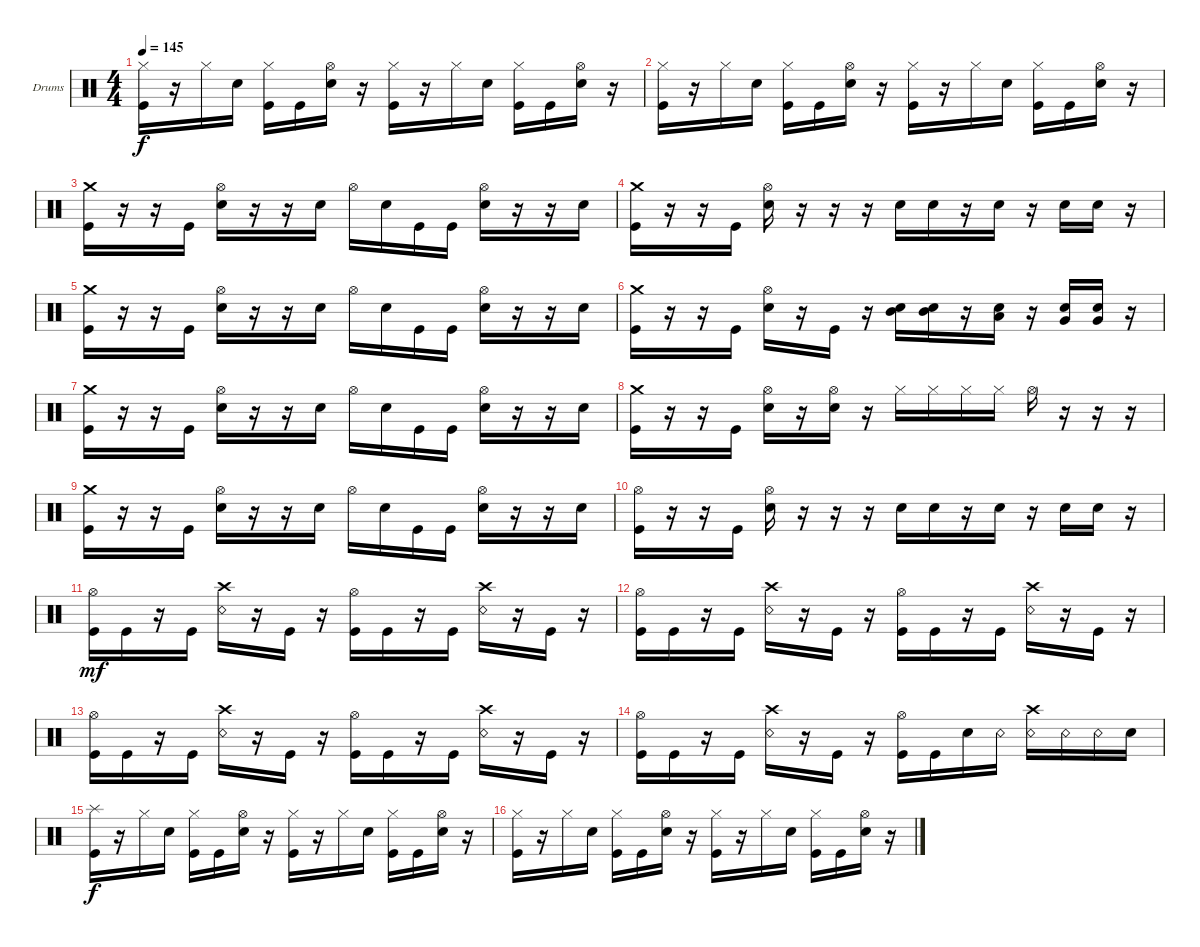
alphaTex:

\defaultSystemsLayout 4
\bracketExtendMode groupsimilarinstruments
\firstSystemTrackNameOrientation horizontal
\otherSystemsTrackNameOrientation horizontal
\track ("Drumkit" "Drums") {instrument percussion}
\staff {score}
\articulation defaults
\ts (4 4)
\tempo 145
\clef neutral
\ks c
("Kick (hit)" "Hi-Hat (closed)").16{dy f} r.16 "Hi-Hat (closed)".16 "Snare (hit) 2".16 ("Hi-Hat (closed)" "Kick (hit)").16 "Kick (hit)".16 ("Hi-Hat (open)" "Snare (hit) 2").16 r.16 ("Hi-Hat (closed)" "Kick (hit)").16 r.16 "Hi-Hat (closed)".16 "Snare (hit) 2".16 ("Hi-Hat (closed)" "Kick (hit)").16 "Kick (hit)".16 ("Hi-Hat (open)" "Snare (hit) 2").16 r.16 |
("Hi-Hat (closed)" "Kick (hit)").16 r.16 "Hi-Hat (closed)".16 "Snare (hit) 2".16 ("Hi-Hat (closed)" "Kick (hit)").16 "Kick (hit)".16 ("Hi-Hat (open)" "Snare (hit) 2").16 r.16 ("Hi-Hat (closed)" "Kick (hit)").16 r.16 "Hi-Hat (closed)".16 "Snare (hit) 2".16 ("Hi-Hat (closed)" "Kick (hit)").16 "Kick (hit)".16 ("Hi-Hat (open)" "Snare (hit) 2").16 r.16 |
("Crash medium (hit)" "Kick (hit)").16 r.16 r.16 "Kick (hit)".16 ("Hi-Hat (open)" "Snare (hit) 2").16 r.16 r.16 "Snare (hit) 2".16 "Hi-Hat (open)".16 "Snare (hit) 2".16 "Kick (hit)".16 "Kick (hit)".16 ("Hi-Hat (open)" "Snare (hit) 2").16 r.16 r.16 "Snare (hit) 2".16 |
("Crash medium (hit)" "Kick (hit)").16 r.16 r.16 "Kick (hit)".16 ("Hi-Hat (open)" "Snare (hit) 2").16 r.16 r.16 r.16 "Snare (hit) 2".16 "Snare (hit) 2".16 r.16 "Snare (hit) 2".16 r.16 "Snare (hit) 2".16 "Snare (hit) 2".16 r.16 |
("Crash medium (hit)" "Kick (hit)").16 r.16 r.16 "Kick (hit)".16 ("Hi-Hat (open)" "Snare (hit) 2").16 r.16 r.16 "Snare (hit) 2".16 "Hi-Hat (open)".16 "Snare (hit) 2".16 "Kick (hit)".16 "Kick (hit)".16 ("Hi-Hat (open)" "Snare (hit) 2").16 r.16 r.16 "Snare (hit) 2".16 |
("Crash medium (hit)" "Kick (hit)").16 r.16 r.16 "Kick (hit)".16 ("Hi-Hat (open)" "Snare (hit) 2").16 r.16 "Kick (hit)".16 r.16 ("Mid Tom (hit)" "Snare (hit) 2").16 ("Mid Tom (hit)" "Snare (hit) 2").16 r.16 ("Low Tom (hit)" "Snare (hit) 2").16 r.16 ("Very Low Tom (hit)" "Snare (hit) 2").16 ("Very Low Tom (hit)" "Snare (hit) 2").16 r.16 |
("Crash medium (hit)" "Kick (hit)").16 r.16 r.16 "Kick (hit)".16 ("Hi-Hat (open)" "Snare (hit) 2").16 r.16 r.16 "Snare (hit) 2".16 "Hi-Hat (open)".16 "Snare (hit) 2".16 "Kick (hit)".16 "Kick (hit)".16 ("Hi-Hat (open)" "Snare (hit) 2").16 r.16 r.16 "Snare (hit) 2".16 |
("Crash medium (hit)" "Kick (hit)").16 r.16 r.16 "Kick (hit)".16 ("Hi-Hat (open)" "Snare (hit) 2").16 r.16 ("Hi-Hat (open)" "Snare (hit) 2").16 r.16 "Hi-Hat (closed)".16 "Hi-Hat (closed)".16 "Hi-Hat (closed)".16 "Hi-Hat (closed)".16 "Hi-Hat (open)".16 r.16 r.16 r.16 |
("Crash medium (hit)" "Kick (hit)").16 r.16 r.16 "Kick (hit)".16 ("Hi-Hat (open)" "Snare (hit) 2").16 r.16 r.16 "Snare (hit) 2".16 "Hi-Hat (open)".16 "Snare (hit) 2".16 "Kick (hit)".16 "Kick (hit)".16 ("Hi-Hat (open)" "Snare (hit) 2").16 r.16 r.16 "Snare (hit) 2".16 |
("Hi-Hat (open)" "Kick (hit)").16 r.16 r.16 "Kick (hit)".16 ("Hi-Hat (open)" "Snare (hit) 2").16 r.16 r.16 r.16 "Snare (hit) 2".16 "Snare (hit) 2".16 r.16 "Snare (hit) 2".16 r.16 "Snare (hit) 2".16 "Snare (hit) 2".16 r.16 |
("Kick (hit)" "Hi-Hat (open)").16{dy mf} "Kick (hit)".16 r.16 "Kick (hit)".16 ("Snare (rim shot)" "Crash high (hit)").16 r.16 "Kick (hit)".16 r.16 ("Kick (hit)" "Hi-Hat (open)").16 "Kick (hit)".16 r.16 "Kick (hit)".16 ("Snare (rim shot)" "Crash high (hit)").16 r.16 "Kick (hit)".16 r.16 |
("Kick (hit)" "Hi-Hat (open)").16 "Kick (hit)".16 r.16 "Kick (hit)".16 ("Snare (rim shot)" "Crash high (hit)").16 r.16 "Kick (hit)".16 r.16 ("Kick (hit)" "Hi-Hat (open)").16 "Kick (hit)".16 r.16 "Kick (hit)".16 ("Snare (rim shot)" "Crash high (hit)").16 r.16 "Kick (hit)".16 r.16 |
("Kick (hit)" "Hi-Hat (open)").16 "Kick (hit)".16 r.16 "Kick (hit)".16 ("Snare (rim shot)" "Crash high (hit)").16 r.16 "Kick (hit)".16 r.16 ("Kick (hit)" "Hi-Hat (open)").16 "Kick (hit)".16 r.16 "Kick (hit)".16 ("Snare (rim shot)" "Crash high (hit)").16 r.16 "Kick (hit)".16 r.16 |
("Kick (hit)" "Hi-Hat (open)").16 "Kick (hit)".16 r.16 "Kick (hit)".16 ("Snare (rim shot)" "Crash high (hit)").16 r.16 "Kick (hit)".16 r.16 ("Kick (hit)" "Hi-Hat (open)").16 "Kick (hit)".16 "Snare (hit) 2".16 "Snare (rim shot)".16 ("Snare (rim shot)" "Crash high (hit)").16 "Snare (rim shot)".16 "Snare (rim shot)".16 "Snare (hit) 2".16 |
("Splash (hit)" "Kick (hit)").16{dy f} r.16 "Hi-Hat (closed)".16 "Snare (hit) 2".16 ("Hi-Hat (closed)" "Kick (hit)").16 "Kick (hit)".16 ("Hi-Hat (open)" "Snare (hit) 2").16 r.16 ("Hi-Hat (closed)" "Kick (hit)").16 r.16 "Hi-Hat (closed)".16 "Snare (hit) 2".16 ("Hi-Hat (closed)" "Kick (hit)").16 "Kick (hit)".16 ("Hi-Hat (open)" "Snare (hit) 2").16 r.16 |
("Hi-Hat (closed)" "Kick (hit)").16 r.16 "Hi-Hat (closed)".16 "Snare (hit) 2".16 ("Hi-Hat (closed)" "Kick (hit)").16 "Kick (hit)".16 ("Hi-Hat (open)" "Snare (hit) 2").16 r.16 ("Hi-Hat (closed)" "Kick (hit)").16 r.16 "Hi-Hat (closed)".16 "Snare (hit) 2".16 ("Hi-Hat (closed)" "Kick (hit)").16 "Kick (hit)".16 ("Hi-Hat (open)" "Snare (hit) 2").16 r.16
